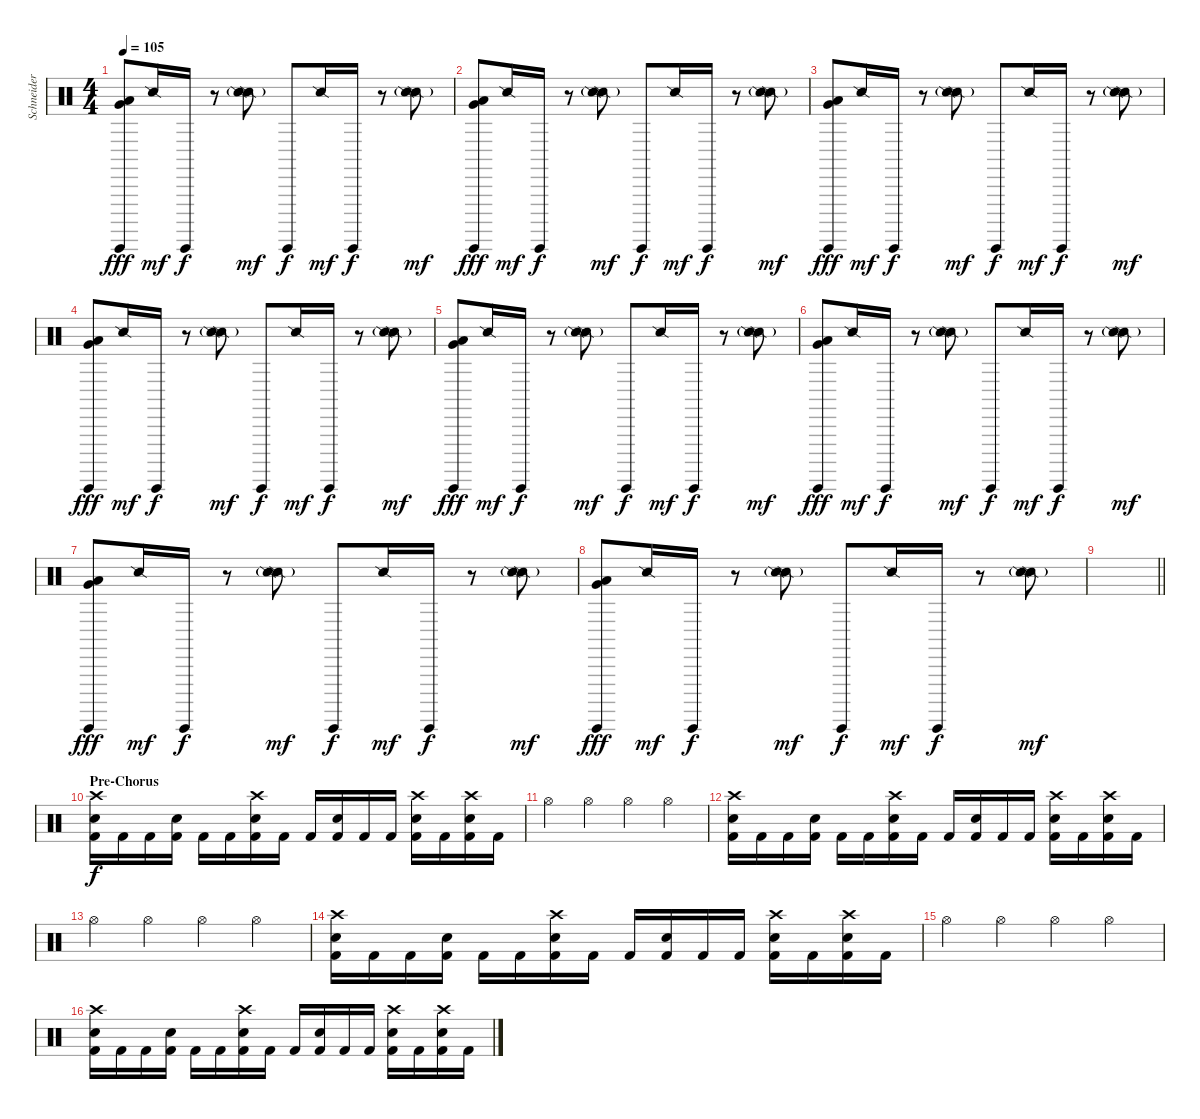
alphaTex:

\track ("Schneider" "Schneider") {instrument percussion}
\staff {score}
\articulation defaults
\ts (4 4)
\tempo 105
\clef neutral
\ks c
("Guiro (hit)" "Very Low Tom (hit)" "Low Tom (hit)").8{dy fff} "Snare (side stick) 2".16{dy mf} "Guiro (hit)".16{dy f} r.8 ("Snare (side stick) 2"{g} "Snare (side stick) 2").8{dy mf} "Guiro (hit)".8{dy f} "Snare (side stick) 2".16{dy mf} "Guiro (hit)".16{dy f} r.8 ("Snare (side stick) 2"{g} "Snare (side stick) 2").8{dy mf} |
("Guiro (hit)" "Very Low Tom (hit)" "Low Tom (hit)").8{dy fff} "Snare (side stick) 2".16{dy mf} "Guiro (hit)".16{dy f} r.8 ("Snare (side stick) 2"{g} "Snare (side stick) 2").8{dy mf} "Guiro (hit)".8{dy f} "Snare (side stick) 2".16{dy mf} "Guiro (hit)".16{dy f} r.8 ("Snare (side stick) 2"{g} "Snare (side stick) 2").8{dy mf} |
("Guiro (hit)" "Very Low Tom (hit)" "Low Tom (hit)").8{dy fff} "Snare (side stick) 2".16{dy mf} "Guiro (hit)".16{dy f} r.8 ("Snare (side stick) 2"{g} "Snare (side stick) 2").8{dy mf} "Guiro (hit)".8{dy f} "Snare (side stick) 2".16{dy mf} "Guiro (hit)".16{dy f} r.8 ("Snare (side stick) 2"{g} "Snare (side stick) 2").8{dy mf} |
("Guiro (hit)" "Very Low Tom (hit)" "Low Tom (hit)").8{dy fff} "Snare (side stick) 2".16{dy mf} "Guiro (hit)".16{dy f} r.8 ("Snare (side stick) 2"{g} "Snare (side stick) 2").8{dy mf} "Guiro (hit)".8{dy f} "Snare (side stick) 2".16{dy mf} "Guiro (hit)".16{dy f} r.8 ("Snare (side stick) 2"{g} "Snare (side stick) 2").8{dy mf} |
("Guiro (hit)" "Very Low Tom (hit)" "Low Tom (hit)").8{dy fff} "Snare (side stick) 2".16{dy mf} "Guiro (hit)".16{dy f} r.8 ("Snare (side stick) 2"{g} "Snare (side stick) 2").8{dy mf} "Guiro (hit)".8{dy f} "Snare (side stick) 2".16{dy mf} "Guiro (hit)".16{dy f} r.8 ("Snare (side stick) 2"{g} "Snare (side stick) 2").8{dy mf} |
("Guiro (hit)" "Very Low Tom (hit)" "Low Tom (hit)").8{dy fff} "Snare (side stick) 2".16{dy mf} "Guiro (hit)".16{dy f} r.8 ("Snare (side stick) 2"{g} "Snare (side stick) 2").8{dy mf} "Guiro (hit)".8{dy f} "Snare (side stick) 2".16{dy mf} "Guiro (hit)".16{dy f} r.8 ("Snare (side stick) 2"{g} "Snare (side stick) 2").8{dy mf} |
("Guiro (hit)" "Very Low Tom (hit)" "Low Tom (hit)").8{dy fff} "Snare (side stick) 2".16{dy mf} "Guiro (hit)".16{dy f} r.8 ("Snare (side stick) 2"{g} "Snare (side stick) 2").8{dy mf} "Guiro (hit)".8{dy f} "Snare (side stick) 2".16{dy mf} "Guiro (hit)".16{dy f} r.8 ("Snare (side stick) 2"{g} "Snare (side stick) 2").8{dy mf} |
("Guiro (hit)" "Very Low Tom (hit)" "Low Tom (hit)").8{dy fff} "Snare (side stick) 2".16{dy mf} "Guiro (hit)".16{dy f} r.8 ("Snare (side stick) 2"{g} "Snare (side stick) 2").8{dy mf} "Guiro (hit)".8{dy f} "Snare (side stick) 2".16{dy mf} "Guiro (hit)".16{dy f} r.8 ("Snare (side stick) 2"{g} "Snare (side stick) 2").8{dy mf} |
\barLineRight lightlight
|
\section ("" "Pre-Chorus")
("Crash high (hit)" "Kick (hit) 2" "Electric Snare (hit)").16{dy f} "Kick (hit) 2".16 "Kick (hit) 2".16 ("Kick (hit) 2" "Electric Snare (hit)").16 "Kick (hit) 2".16 "Kick (hit) 2".16 ("Crash high (hit)" "Kick (hit) 2" "Electric Snare (hit)").16 "Kick (hit) 2".16 "Kick (hit) 2".16 ("Kick (hit) 2" "Electric Snare (hit)").16 "Kick (hit) 2".16 "Kick (hit) 2".16 ("Crash high (hit)" "Kick (hit) 2" "Electric Snare (hit)").16 "Kick (hit) 2".16 ("Crash high (hit)" "Kick (hit) 2" "Electric Snare (hit)").16 "Kick (hit) 2".16 |
"Hi-Hat (open)".4 "Hi-Hat (open)".4 "Hi-Hat (open)".4 "Hi-Hat (open)".4 |
("Crash high (hit)" "Kick (hit) 2" "Electric Snare (hit)").16 "Kick (hit) 2".16 "Kick (hit) 2".16 ("Kick (hit) 2" "Electric Snare (hit)").16 "Kick (hit) 2".16 "Kick (hit) 2".16 ("Crash high (hit)" "Kick (hit) 2" "Electric Snare (hit)").16 "Kick (hit) 2".16 "Kick (hit) 2".16 ("Kick (hit) 2" "Electric Snare (hit)").16 "Kick (hit) 2".16 "Kick (hit) 2".16 ("Crash high (hit)" "Kick (hit) 2" "Electric Snare (hit)").16 "Kick (hit) 2".16 ("Crash high (hit)" "Kick (hit) 2" "Electric Snare (hit)").16 "Kick (hit) 2".16 |
"Hi-Hat (open)".4 "Hi-Hat (open)".4 "Hi-Hat (open)".4 "Hi-Hat (open)".4 |
("Crash high (hit)" "Kick (hit) 2" "Electric Snare (hit)").16 "Kick (hit) 2".16 "Kick (hit) 2".16 ("Kick (hit) 2" "Electric Snare (hit)").16 "Kick (hit) 2".16 "Kick (hit) 2".16 ("Crash high (hit)" "Kick (hit) 2" "Electric Snare (hit)").16 "Kick (hit) 2".16 "Kick (hit) 2".16 ("Kick (hit) 2" "Electric Snare (hit)").16 "Kick (hit) 2".16 "Kick (hit) 2".16 ("Crash high (hit)" "Kick (hit) 2" "Electric Snare (hit)").16 "Kick (hit) 2".16 ("Crash high (hit)" "Kick (hit) 2" "Electric Snare (hit)").16 "Kick (hit) 2".16 |
"Hi-Hat (open)".4 "Hi-Hat (open)".4 "Hi-Hat (open)".4 "Hi-Hat (open)".4 |
("Crash high (hit)" "Kick (hit) 2" "Electric Snare (hit)").16 "Kick (hit) 2".16 "Kick (hit) 2".16 ("Kick (hit) 2" "Electric Snare (hit)").16 "Kick (hit) 2".16 "Kick (hit) 2".16 ("Crash high (hit)" "Kick (hit) 2" "Electric Snare (hit)").16 "Kick (hit) 2".16 "Kick (hit) 2".16 ("Kick (hit) 2" "Electric Snare (hit)").16 "Kick (hit) 2".16 "Kick (hit) 2".16 ("Crash high (hit)" "Kick (hit) 2" "Electric Snare (hit)").16 "Kick (hit) 2".16 ("Crash high (hit)" "Kick (hit) 2" "Electric Snare (hit)").16 "Kick (hit) 2".16
